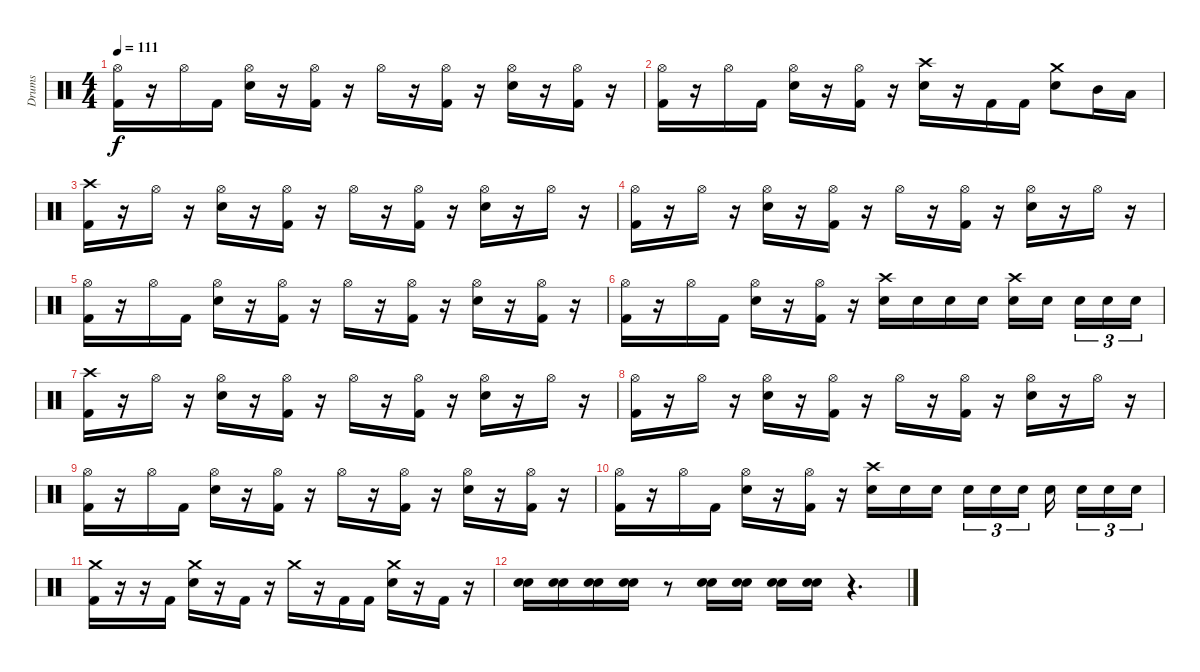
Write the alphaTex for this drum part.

\track ("Drums" "Drums") {instrument percussion}
\staff {score}
\articulation defaults
\ts (4 4)
\tempo 111
\clef neutral
\ks c
("Hi-Hat (open)" "Kick (hit) 2").16{dy f} r.16 "Hi-Hat (open)".16 "Kick (hit) 2".16 ("Hi-Hat (open)" "Snare (hit) 2").16 r.16 ("Hi-Hat (open)" "Kick (hit) 2").16 r.16 "Hi-Hat (open)".16 r.16 ("Hi-Hat (open)" "Kick (hit) 2").16 r.16 ("Hi-Hat (open)" "Snare (hit) 2").16 r.16 ("Hi-Hat (open)" "Kick (hit) 2").16 r.16 |
("Hi-Hat (open)" "Kick (hit) 2").16 r.16 "Hi-Hat (open)".16 "Kick (hit) 2".16 ("Hi-Hat (open)" "Snare (hit) 2").16 r.16 ("Hi-Hat (open)" "Kick (hit) 2").16 r.16 ("Crash high (hit)" "Snare (hit) 2").16 r.16 "Kick (hit) 2".16 "Kick (hit) 2".16 ("Crash medium (hit)" "Snare (hit) 2").8 "Mid Tom (hit)".16 "Low Tom (hit)".16 |
("Crash high (hit)" "Kick (hit) 2").16 r.16 "Hi-Hat (open)".16 r.16 ("Hi-Hat (open)" "Snare (hit) 2").16 r.16 ("Hi-Hat (open)" "Kick (hit) 2").16 r.16 "Hi-Hat (open)".16 r.16 ("Hi-Hat (open)" "Kick (hit) 2").16 r.16 ("Hi-Hat (open)" "Snare (hit) 2").16 r.16 "Hi-Hat (open)".16 r.16 |
("Hi-Hat (open)" "Kick (hit) 2").16 r.16 "Hi-Hat (open)".16 r.16 ("Hi-Hat (open)" "Snare (hit) 2").16 r.16 ("Hi-Hat (open)" "Kick (hit) 2").16 r.16 "Hi-Hat (open)".16 r.16 ("Hi-Hat (open)" "Kick (hit) 2").16 r.16 ("Hi-Hat (open)" "Snare (hit) 2").16 r.16 "Hi-Hat (open)".16 r.16 |
("Hi-Hat (open)" "Kick (hit) 2").16 r.16 "Hi-Hat (open)".16 "Kick (hit) 2".16 ("Hi-Hat (open)" "Snare (hit) 2").16 r.16 ("Hi-Hat (open)" "Kick (hit) 2").16 r.16 "Hi-Hat (open)".16 r.16 ("Hi-Hat (open)" "Kick (hit) 2").16 r.16 ("Hi-Hat (open)" "Snare (hit) 2").16 r.16 ("Hi-Hat (open)" "Kick (hit) 2").16 r.16 |
("Hi-Hat (open)" "Kick (hit) 2").16 r.16 "Hi-Hat (open)".16 "Kick (hit) 2".16 ("Hi-Hat (open)" "Snare (hit) 2").16 r.16 ("Hi-Hat (open)" "Kick (hit) 2").16 r.16 ("Crash high (hit)" "Snare (hit) 2").16 "Snare (hit) 2".16 "Snare (hit) 2".16 "Snare (hit) 2".16 ("Crash high (hit)" "Snare (hit) 2").16 "Snare (hit) 2".16 "Snare (hit) 2".16{tu (3 2)} "Snare (hit) 2".16{tu (3 2)} "Snare (hit) 2".16{tu (3 2)} |
("Crash high (hit)" "Kick (hit) 2").16 r.16 "Hi-Hat (open)".16 r.16 ("Hi-Hat (open)" "Snare (hit) 2").16 r.16 ("Hi-Hat (open)" "Kick (hit) 2").16 r.16 "Hi-Hat (open)".16 r.16 ("Hi-Hat (open)" "Kick (hit) 2").16 r.16 ("Hi-Hat (open)" "Snare (hit) 2").16 r.16 "Hi-Hat (open)".16 r.16 |
("Hi-Hat (open)" "Kick (hit) 2").16 r.16 "Hi-Hat (open)".16 r.16 ("Hi-Hat (open)" "Snare (hit) 2").16 r.16 ("Hi-Hat (open)" "Kick (hit) 2").16 r.16 "Hi-Hat (open)".16 r.16 ("Hi-Hat (open)" "Kick (hit) 2").16 r.16 ("Hi-Hat (open)" "Snare (hit) 2").16 r.16 "Hi-Hat (open)".16 r.16 |
("Hi-Hat (open)" "Kick (hit) 2").16 r.16 "Hi-Hat (open)".16 "Kick (hit) 2".16 ("Hi-Hat (open)" "Snare (hit) 2").16 r.16 ("Hi-Hat (open)" "Kick (hit) 2").16 r.16 "Hi-Hat (open)".16 r.16 ("Hi-Hat (open)" "Kick (hit) 2").16 r.16 ("Hi-Hat (open)" "Snare (hit) 2").16 r.16 ("Hi-Hat (open)" "Kick (hit) 2").16 r.16 |
("Hi-Hat (open)" "Kick (hit) 2").16 r.16 "Hi-Hat (open)".16 "Kick (hit) 2".16 ("Hi-Hat (open)" "Snare (hit) 2").16 r.16 ("Hi-Hat (open)" "Kick (hit) 2").16 r.16 ("Crash high (hit)" "Snare (hit) 2").16 "Snare (hit) 2".16 "Snare (hit) 2".16 "Snare (hit) 2".16{tu (3 2)} "Snare (hit) 2".16{tu (3 2)} "Snare (hit) 2".16{tu (3 2)} "Snare (hit) 2".16 "Snare (hit) 2".16{tu (3 2)} "Snare (hit) 2".16{tu (3 2)} "Snare (hit) 2".16{tu (3 2)} |
("Crash medium (hit)" "Kick (hit) 2").16 r.16 r.16 "Kick (hit) 2".16 ("Crash medium (hit)" "Snare (hit) 2").16 r.16 "Kick (hit) 2".16 r.16 "Crash medium (hit)".16 r.16 "Kick (hit) 2".16 "Kick (hit) 2".16 ("Crash medium (hit)" "Snare (hit) 2").16 r.16 "Kick (hit) 2".16 r.16 |
("Snare (hit) 2" "Snare (hit) 2").16 ("Snare (hit) 2" "Snare (hit) 2").16 ("Snare (hit) 2" "Snare (hit) 2").16 ("Snare (hit) 2" "Snare (hit) 2").16 r.8 ("Snare (hit) 2" "Snare (hit) 2").16 ("Snare (hit) 2" "Snare (hit) 2").16 ("Snare (hit) 2" "Snare (hit) 2").16 ("Snare (hit) 2" "Snare (hit) 2").16 r.4{d}
